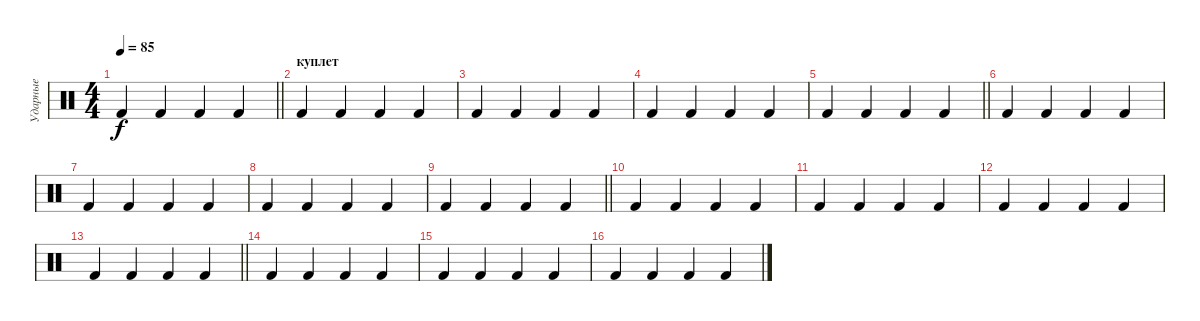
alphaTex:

\track ("Ударные" "Ударные") {instrument percussion}
\staff {score}
\articulation defaults
\ts (4 4)
\tempo 85
\clef neutral
\barLineRight lightlight
\ks c "Kick (hit) 2".4{dy f} "Kick (hit) 2".4 "Kick (hit) 2".4 "Kick (hit) 2".4
|
\section ("" "куплет")
"Kick (hit) 2".4 "Kick (hit) 2".4 "Kick (hit) 2".4 "Kick (hit) 2".4 |
"Kick (hit) 2".4 "Kick (hit) 2".4 "Kick (hit) 2".4 "Kick (hit) 2".4 |
"Kick (hit) 2".4 "Kick (hit) 2".4 "Kick (hit) 2".4 "Kick (hit) 2".4 |
\barLineRight lightlight "Kick (hit) 2".4 "Kick (hit) 2".4 "Kick (hit) 2".4 "Kick (hit) 2".4
|
"Kick (hit) 2".4 "Kick (hit) 2".4 "Kick (hit) 2".4 "Kick (hit) 2".4 |
"Kick (hit) 2".4 "Kick (hit) 2".4 "Kick (hit) 2".4 "Kick (hit) 2".4 |
"Kick (hit) 2".4 "Kick (hit) 2".4 "Kick (hit) 2".4 "Kick (hit) 2".4 |
\barLineRight lightlight "Kick (hit) 2".4 "Kick (hit) 2".4 "Kick (hit) 2".4 "Kick (hit) 2".4
|
"Kick (hit) 2".4 "Kick (hit) 2".4 "Kick (hit) 2".4 "Kick (hit) 2".4 |
"Kick (hit) 2".4 "Kick (hit) 2".4 "Kick (hit) 2".4 "Kick (hit) 2".4 |
"Kick (hit) 2".4 "Kick (hit) 2".4 "Kick (hit) 2".4 "Kick (hit) 2".4 |
\barLineRight lightlight "Kick (hit) 2".4 "Kick (hit) 2".4 "Kick (hit) 2".4 "Kick (hit) 2".4
|
"Kick (hit) 2".4 "Kick (hit) 2".4 "Kick (hit) 2".4 "Kick (hit) 2".4 |
"Kick (hit) 2".4 "Kick (hit) 2".4 "Kick (hit) 2".4 "Kick (hit) 2".4 |
"Kick (hit) 2".4 "Kick (hit) 2".4 "Kick (hit) 2".4 "Kick (hit) 2".4
